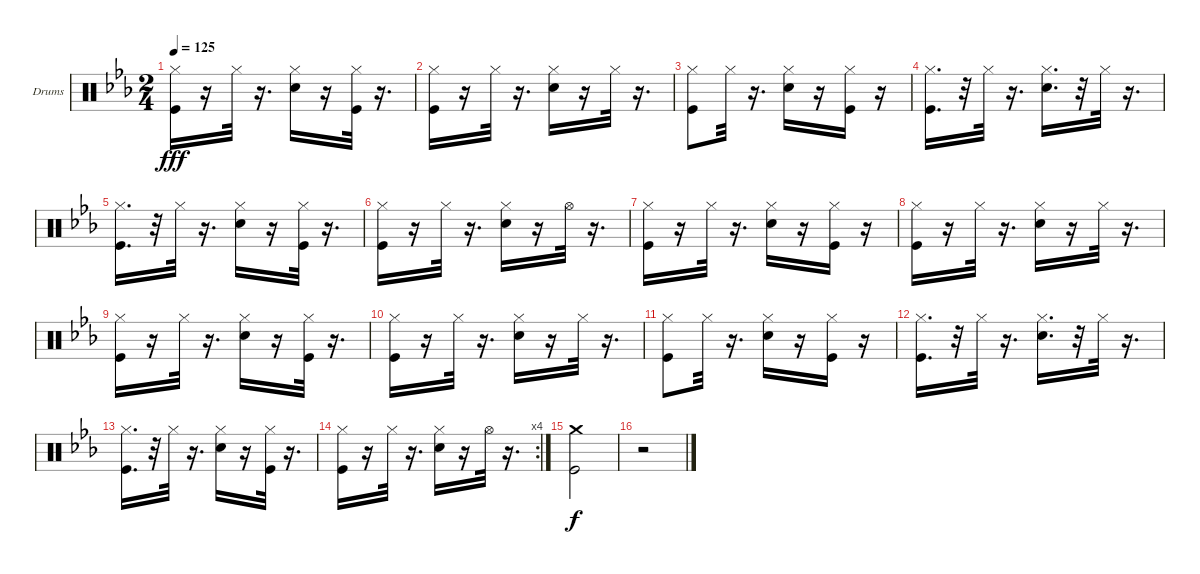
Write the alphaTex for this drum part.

\bracketExtendMode groupsimilarinstruments
\firstSystemTrackNameOrientation horizontal
\otherSystemsTrackNameOrientation horizontal
\track ("Drumkit" "Drums") {instrument percussion}
\staff {score}
\articulation defaults
\ts (2 4)
\tempo 125
\clef neutral
\ks cminor
("Kick (hit)" "Hi-Hat (closed)").16{dy fff} r.16 "Hi-Hat (closed)".32 r.16{d} ("Snare (hit) 2" "Hi-Hat (closed)").16 r.16 ("Kick (hit)" "Hi-Hat (closed)").32 r.16{d} |
("Kick (hit)" "Hi-Hat (closed)").16 r.16 "Hi-Hat (closed)".32 r.16{d} ("Snare (hit) 2" "Hi-Hat (closed)").16 r.16 "Hi-Hat (closed)".32 r.16{d} |
("Kick (hit)" "Hi-Hat (closed)").8 "Hi-Hat (closed)".32 r.16{d} ("Snare (hit) 2" "Hi-Hat (closed)").16 r.16 ("Kick (hit)" "Hi-Hat (closed)").16 r.16 |
("Kick (hit)" "Hi-Hat (closed)").16{d} r.32 "Hi-Hat (closed)".32 r.16{d} ("Snare (hit) 2" "Hi-Hat (closed)").16{d} r.32 "Hi-Hat (closed)".32 r.16{d} |
("Kick (hit)" "Hi-Hat (closed)").16{d} r.32 "Hi-Hat (closed)".32 r.16{d} ("Snare (hit) 2" "Hi-Hat (closed)").16 r.16 ("Kick (hit)" "Hi-Hat (closed)").32 r.16{d} |
("Kick (hit)" "Hi-Hat (closed)").16 r.16 "Hi-Hat (closed)".32 r.16{d} ("Snare (hit) 2" "Hi-Hat (closed)").16 r.16 "Hi-Hat (open)".32 r.16{d} |
("Kick (hit)" "Hi-Hat (closed)").16 r.16 "Hi-Hat (closed)".32 r.16{d} ("Snare (hit) 2" "Hi-Hat (closed)").16 r.16 ("Kick (hit)" "Hi-Hat (closed)").16 r.16 |
("Kick (hit)" "Hi-Hat (closed)").16 r.16 "Hi-Hat (closed)".32 r.16{d} ("Snare (hit) 2" "Hi-Hat (closed)").16 r.16 "Hi-Hat (closed)".32 r.16{d} |
("Kick (hit)" "Hi-Hat (closed)").16 r.16 "Hi-Hat (closed)".32 r.16{d} ("Snare (hit) 2" "Hi-Hat (closed)").16 r.16 ("Kick (hit)" "Hi-Hat (closed)").32 r.16{d} |
("Kick (hit)" "Hi-Hat (closed)").16 r.16 "Hi-Hat (closed)".32 r.16{d} ("Snare (hit) 2" "Hi-Hat (closed)").16 r.16 "Hi-Hat (closed)".32 r.16{d} |
("Kick (hit)" "Hi-Hat (closed)").8 "Hi-Hat (closed)".32 r.16{d} ("Snare (hit) 2" "Hi-Hat (closed)").16 r.16 ("Kick (hit)" "Hi-Hat (closed)").16 r.16 |
("Kick (hit)" "Hi-Hat (closed)").16{d} r.32 "Hi-Hat (closed)".32 r.16{d} ("Snare (hit) 2" "Hi-Hat (closed)").16{d} r.32 "Hi-Hat (closed)".32 r.16{d} |
("Kick (hit)" "Hi-Hat (closed)").16{d} r.32 "Hi-Hat (closed)".32 r.16{d} ("Snare (hit) 2" "Hi-Hat (closed)").16 r.16 ("Kick (hit)" "Hi-Hat (closed)").32 r.16{d} |
\rc 4
("Kick (hit)" "Hi-Hat (closed)").16 r.16 "Hi-Hat (closed)".32 r.16{d} ("Snare (hit) 2" "Hi-Hat (closed)").16 r.16 "Hi-Hat (open)".32 r.16{d} |
("Kick (hit)" "Crash medium (hit)").2{dy f} |
r.2
